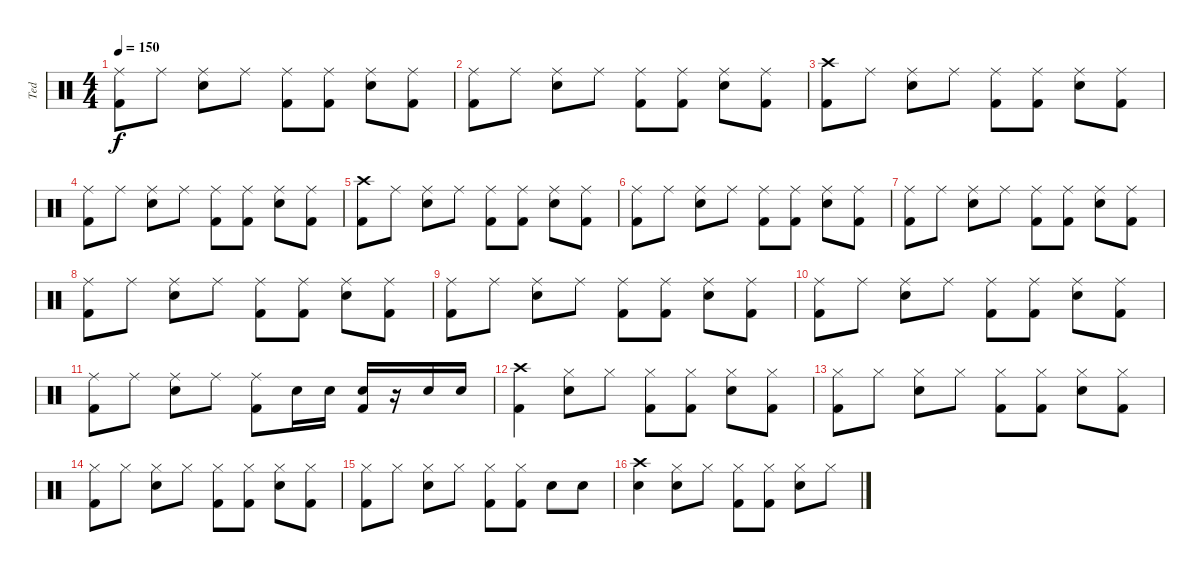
\track ("Ted" "Ted") {instrument percussion}
\staff {score}
\articulation defaults
\ts (4 4)
\tempo 150
\clef neutral
\ks c
("Ride (middle)" "Kick (hit) 2").8{dy f} "Ride (middle)".8 ("Ride (middle)" "Electric Snare (hit)").8 "Ride (middle)".8 ("Ride (middle)" "Kick (hit) 2").8 ("Ride (middle)" "Kick (hit) 2").8 ("Ride (middle)" "Electric Snare (hit)").8 ("Ride (middle)" "Kick (hit) 2").8 |
("Ride (middle)" "Kick (hit) 2").8 "Ride (middle)".8 ("Ride (middle)" "Electric Snare (hit)").8 "Ride (middle)".8 ("Ride (middle)" "Kick (hit) 2").8 ("Ride (middle)" "Kick (hit) 2").8 ("Ride (middle)" "Electric Snare (hit)").8 ("Ride (middle)" "Kick (hit) 2").8 |
("Crash high (hit)" "Kick (hit) 2").8 "Ride (middle)".8 ("Ride (middle)" "Electric Snare (hit)").8 "Ride (middle)".8 ("Ride (middle)" "Kick (hit) 2").8 ("Ride (middle)" "Kick (hit) 2").8 ("Ride (middle)" "Electric Snare (hit)").8 ("Ride (middle)" "Kick (hit) 2").8 |
("Ride (middle)" "Kick (hit) 2").8 "Ride (middle)".8 ("Ride (middle)" "Electric Snare (hit)").8 "Ride (middle)".8 ("Ride (middle)" "Kick (hit) 2").8 ("Ride (middle)" "Kick (hit) 2").8 ("Ride (middle)" "Electric Snare (hit)").8 ("Ride (middle)" "Kick (hit) 2").8 |
("Crash high (hit)" "Kick (hit) 2").8 "Ride (middle)".8 ("Ride (middle)" "Electric Snare (hit)").8 "Ride (middle)".8 ("Ride (middle)" "Kick (hit) 2").8 ("Ride (middle)" "Kick (hit) 2").8 ("Ride (middle)" "Electric Snare (hit)").8 ("Ride (middle)" "Kick (hit) 2").8 |
("Ride (middle)" "Kick (hit) 2").8 "Ride (middle)".8 ("Ride (middle)" "Electric Snare (hit)").8 "Ride (middle)".8 ("Ride (middle)" "Kick (hit) 2").8 ("Ride (middle)" "Kick (hit) 2").8 ("Ride (middle)" "Electric Snare (hit)").8 ("Ride (middle)" "Kick (hit) 2").8 |
("Ride (middle)" "Kick (hit) 2").8 "Ride (middle)".8 ("Ride (middle)" "Electric Snare (hit)").8 "Ride (middle)".8 ("Ride (middle)" "Kick (hit) 2").8 ("Ride (middle)" "Kick (hit) 2").8 ("Ride (middle)" "Electric Snare (hit)").8 ("Ride (middle)" "Kick (hit) 2").8 |
("Ride (middle)" "Kick (hit) 2").8 "Ride (middle)".8 ("Ride (middle)" "Electric Snare (hit)").8 "Ride (middle)".8 ("Ride (middle)" "Kick (hit) 2").8 ("Ride (middle)" "Kick (hit) 2").8 ("Ride (middle)" "Electric Snare (hit)").8 ("Ride (middle)" "Kick (hit) 2").8 |
("Ride (middle)" "Kick (hit) 2").8 "Ride (middle)".8 ("Ride (middle)" "Electric Snare (hit)").8 "Ride (middle)".8 ("Ride (middle)" "Kick (hit) 2").8 ("Ride (middle)" "Kick (hit) 2").8 ("Ride (middle)" "Electric Snare (hit)").8 ("Ride (middle)" "Kick (hit) 2").8 |
("Ride (middle)" "Kick (hit) 2").8 "Ride (middle)".8 ("Ride (middle)" "Electric Snare (hit)").8 "Ride (middle)".8 ("Ride (middle)" "Kick (hit) 2").8 ("Ride (middle)" "Kick (hit) 2").8 ("Ride (middle)" "Electric Snare (hit)").8 ("Ride (middle)" "Kick (hit) 2").8 |
("Ride (middle)" "Kick (hit) 2").8 "Ride (middle)".8 ("Ride (middle)" "Electric Snare (hit)").8 "Ride (middle)".8 ("Ride (middle)" "Kick (hit) 2").8 "Electric Snare (hit)".16 "Electric Snare (hit)".16 ("Electric Snare (hit)" "Kick (hit) 2").16 r.16 "Electric Snare (hit)".16 "Electric Snare (hit)".16 |
("Crash high (hit)" "Kick (hit) 2").4 ("Hi-Hat (closed)" "Electric Snare (hit)").8 "Hi-Hat (closed)".8 ("Hi-Hat (closed)" "Kick (hit) 2").8 ("Hi-Hat (closed)" "Kick (hit) 2").8 ("Hi-Hat (closed)" "Electric Snare (hit)").8 ("Hi-Hat (closed)" "Kick (hit) 2").8 |
("Hi-Hat (closed)" "Kick (hit) 2").8 "Hi-Hat (closed)".8 ("Hi-Hat (closed)" "Electric Snare (hit)").8 "Hi-Hat (closed)".8 ("Hi-Hat (closed)" "Kick (hit) 2").8 ("Hi-Hat (closed)" "Kick (hit) 2").8 ("Hi-Hat (closed)" "Electric Snare (hit)").8 ("Hi-Hat (closed)" "Kick (hit) 2").8 |
("Hi-Hat (closed)" "Kick (hit) 2").8 "Hi-Hat (closed)".8 ("Hi-Hat (closed)" "Electric Snare (hit)").8 "Hi-Hat (closed)".8 ("Hi-Hat (closed)" "Kick (hit) 2").8 ("Hi-Hat (closed)" "Kick (hit) 2").8 ("Hi-Hat (closed)" "Electric Snare (hit)").8 ("Hi-Hat (closed)" "Kick (hit) 2").8 |
("Hi-Hat (closed)" "Kick (hit) 2").8 "Hi-Hat (closed)".8 ("Hi-Hat (closed)" "Electric Snare (hit)").8 "Hi-Hat (closed)".8 ("Hi-Hat (closed)" "Kick (hit) 2").8 ("Hi-Hat (closed)" "Kick (hit) 2").8 "Electric Snare (hit)".8 "Electric Snare (hit)".8 |
("Crash high (hit)" "Electric Snare (hit)").4 ("Hi-Hat (closed)" "Electric Snare (hit)").8 "Hi-Hat (closed)".8 ("Hi-Hat (closed)" "Kick (hit) 2").8 ("Hi-Hat (closed)" "Kick (hit) 2").8 ("Hi-Hat (closed)" "Electric Snare (hit)").8 "Hi-Hat (closed)".8
